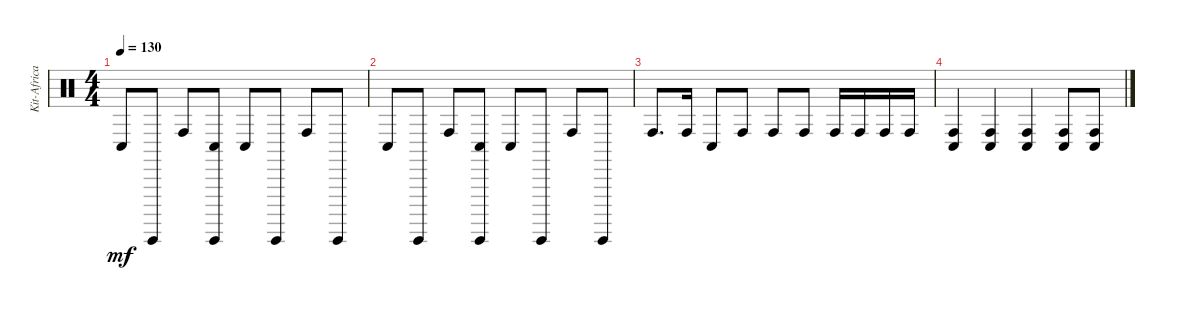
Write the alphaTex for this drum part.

\track ("Kit-Africa" "Kit-Africa") {instrument percussion}
\staff {score}
\articulation defaults
\ts (4 4)
\tempo 130
\clef neutral
\ks c "Conga low (hit)".8{dy mf} "Guiro (hit)".8 "Conga high (hit)".8
("Conga low (hit)" "Guiro (hit)").8 "Conga low (hit)".8 "Guiro (hit)".8 "Conga high (hit)".8 "Guiro (hit)".8 |
"Conga low (hit)".8 "Guiro (hit)".8 "Conga high (hit)".8 ("Conga low (hit)" "Guiro (hit)").8 "Conga low (hit)".8 "Guiro (hit)".8 "Conga high (hit)".8 "Guiro (hit)".8 |
"Conga high (hit)".8{d} "Conga high (hit)".16 "Conga low (hit)".8 "Conga high (hit)".8 "Conga high (hit)".8 "Conga high (hit)".8 "Conga high (hit)".16 "Conga high (hit)".16 "Conga high (hit)".16 "Conga high (hit)".16 |
("Conga low (hit)" "Conga high (hit)").4 ("Conga low (hit)" "Conga high (hit)").4 ("Conga low (hit)" "Conga high (hit)").4 ("Conga low (hit)" "Conga high (hit)").8 ("Conga low (hit)" "Conga high (hit)").8
